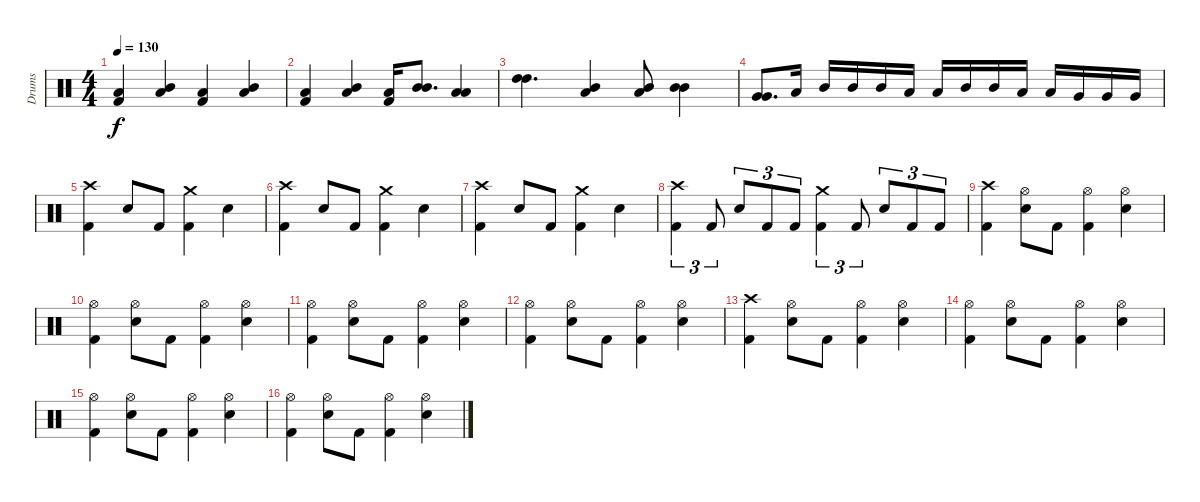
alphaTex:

\track ("Drums" "Drums") {instrument percussion}
\staff {score}
\articulation defaults
\ts (4 4)
\tempo 130
\clef neutral
\ks c
("Low Floor Tom (hit)" "Kick (hit) 2").4{dy f} ("Low Tom (hit)" "Mid Tom (hit)").4 ("Low Floor Tom (hit)" "Kick (hit) 2").4 ("Low Tom (hit)" "Mid Tom (hit)").4 |
("Low Floor Tom (hit)" "Kick (hit) 2").4 ("Low Tom (hit)" "Mid Tom (hit)").4 ("Low Floor Tom (hit)" "Kick (hit) 2").16 ("Mid Tom (hit)" "Mid Tom (hit)").8{d} ("Low Tom (hit)" "Low Tom (hit)").4 |
("High Tom (hit)" "High Tom (hit)").4{d} ("Low Tom (hit)" "Mid Tom (hit)").4 ("Low Tom (hit)" "Mid Tom (hit)").8 ("Mid Tom (hit)" "Mid Tom (hit)").4 |
("Very Low Tom (hit)" "Very Low Tom (hit)").8{d} "Low Tom (hit)".16 "Mid Tom (hit)".16 "Mid Tom (hit)".16 "Mid Tom (hit)".16 "Low Tom (hit)".16 "Low Tom (hit)".16 "Mid Tom (hit)".16 "Mid Tom (hit)".16 "Low Tom (hit)".16 "Low Tom (hit)".16 "Very Low Tom (hit)".16 "Very Low Tom (hit)".16 "Very Low Tom (hit)".16 |
("Crash high (hit)" "Kick (hit) 2").4 "Electric Snare (hit)".8 "Kick (hit) 2".8 ("Crash medium (hit)" "Kick (hit) 2").4 "Electric Snare (hit)".4 |
("Crash high (hit)" "Kick (hit) 2").4 "Electric Snare (hit)".8 "Kick (hit) 2".8 ("Crash medium (hit)" "Kick (hit) 2").4 "Electric Snare (hit)".4 |
("Crash high (hit)" "Kick (hit) 2").4 "Electric Snare (hit)".8 "Kick (hit) 2".8 ("Crash medium (hit)" "Kick (hit) 2").4 "Electric Snare (hit)".4 |
("Crash high (hit)" "Kick (hit) 2").4{tu (3 2)} "Kick (hit) 2".8{tu (3 2)} "Electric Snare (hit)".8{tu (3 2)} "Kick (hit) 2".8{tu (3 2)} "Kick (hit) 2".8{tu (3 2)} ("Crash medium (hit)" "Kick (hit) 2").4{tu (3 2)} "Kick (hit) 2".8{tu (3 2)} "Electric Snare (hit)".8{tu (3 2)} "Kick (hit) 2".8{tu (3 2)} "Kick (hit) 2".8{tu (3 2)} |
("Crash high (hit)" "Kick (hit) 2").4 ("Hi-Hat (open)" "Electric Snare (hit)").8 "Kick (hit) 2".8 ("Hi-Hat (open)" "Kick (hit) 2").4 ("Hi-Hat (open)" "Electric Snare (hit)").4 |
("Hi-Hat (open)" "Kick (hit) 2").4 ("Hi-Hat (open)" "Electric Snare (hit)").8 "Kick (hit) 2".8 ("Hi-Hat (open)" "Kick (hit) 2").4 ("Hi-Hat (open)" "Electric Snare (hit)").4 |
("Hi-Hat (open)" "Kick (hit) 2").4 ("Hi-Hat (open)" "Electric Snare (hit)").8 "Kick (hit) 2".8 ("Hi-Hat (open)" "Kick (hit) 2").4 ("Hi-Hat (open)" "Electric Snare (hit)").4 |
("Hi-Hat (open)" "Kick (hit) 2").4 ("Hi-Hat (open)" "Electric Snare (hit)").8 "Kick (hit) 2".8 ("Hi-Hat (open)" "Kick (hit) 2").4 ("Hi-Hat (open)" "Electric Snare (hit)").4 |
("Crash high (hit)" "Kick (hit) 2").4 ("Hi-Hat (open)" "Electric Snare (hit)").8 "Kick (hit) 2".8 ("Hi-Hat (open)" "Kick (hit) 2").4 ("Hi-Hat (open)" "Electric Snare (hit)").4 |
("Hi-Hat (open)" "Kick (hit) 2").4 ("Hi-Hat (open)" "Electric Snare (hit)").8 "Kick (hit) 2".8 ("Hi-Hat (open)" "Kick (hit) 2").4 ("Hi-Hat (open)" "Electric Snare (hit)").4 |
("Hi-Hat (open)" "Kick (hit) 2").4 ("Hi-Hat (open)" "Electric Snare (hit)").8 "Kick (hit) 2".8 ("Hi-Hat (open)" "Kick (hit) 2").4 ("Hi-Hat (open)" "Electric Snare (hit)").4 |
("Hi-Hat (open)" "Kick (hit) 2").4 ("Hi-Hat (open)" "Electric Snare (hit)").8 "Kick (hit) 2".8 ("Hi-Hat (open)" "Kick (hit) 2").4 ("Hi-Hat (open)" "Electric Snare (hit)").4
